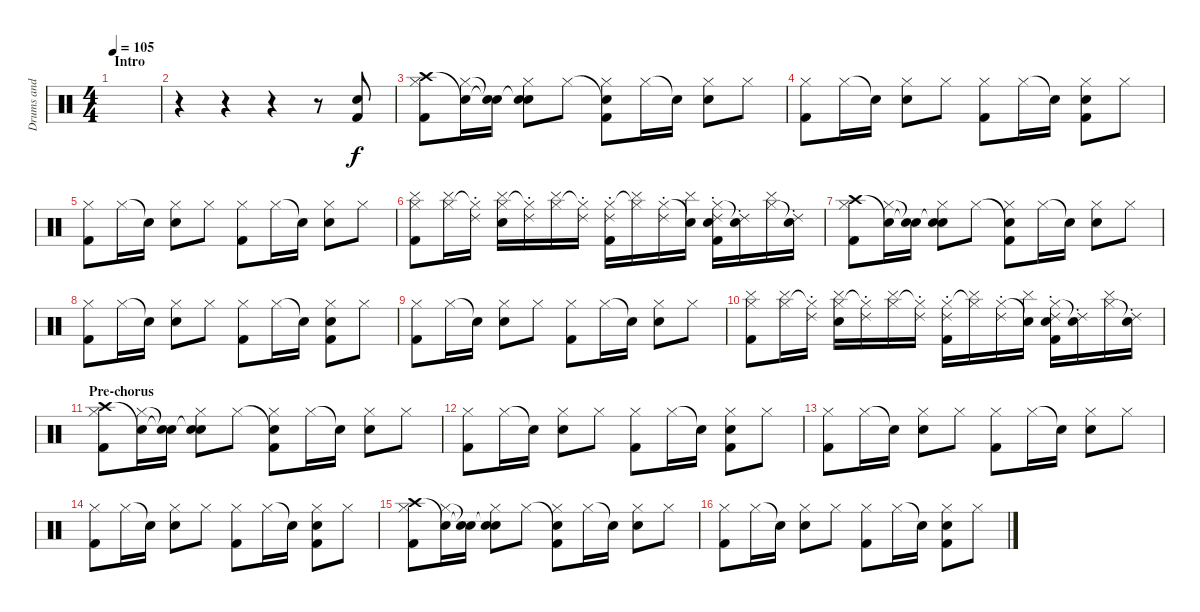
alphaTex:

\track ("Drums and scratch" "Drums and ") {instrument percussion}
\staff {score}
\articulation defaults
\ts (4 4)
\section ("" "Intro")
\tempo 105
\clef neutral
\ks c
|
r.4 r.4 r.4 r.8 ("Electric Snare (hit)" "Kick (hit) 2").8 |
("Crash high (hit)" "Hi-Hat (closed)" "Kick (hit) 2").8 ("Snare (hit)"{t} "Hi-Hat (closed)").16 ("Snare (hit)"{t} "Snare (hit)"{t}).16 ("Snare (hit)"{t} "Hi-Hat (closed)" "Electric Snare (hit)").8 "Hi-Hat (closed)".8 ("Snare (hit)"{t} "Hi-Hat (closed)" "Kick (hit) 2").8 "Hi-Hat (closed)".16 "Snare (hit)"{t}.16 ("Hi-Hat (closed)" "Electric Snare (hit)").8 "Hi-Hat (closed)".8 |
("Hi-Hat (closed)" "Kick (hit) 2").8 "Hi-Hat (closed)".16 "Snare (hit)"{t}.16 ("Hi-Hat (closed)" "Electric Snare (hit)").8 "Hi-Hat (closed)".8 ("Hi-Hat (closed)" "Kick (hit) 2").8 "Hi-Hat (closed)".16 "Snare (hit)"{t}.16 ("Hi-Hat (closed)" "Electric Snare (hit)" "Kick (hit) 2").8 "Hi-Hat (closed)".8 |
("Hi-Hat (closed)" "Kick (hit) 2").8 "Hi-Hat (closed)".16 "Snare (hit)"{t}.16 ("Hi-Hat (closed)" "Electric Snare (hit)").8 "Hi-Hat (closed)".8 ("Hi-Hat (closed)" "Kick (hit) 2").8 "Hi-Hat (closed)".16 "Snare (hit)"{t}.16 ("Hi-Hat (closed)" "Electric Snare (hit)").8 "Hi-Hat (closed)".8 |
("Cymbal (hit)" "Hi-Hat (closed)" "Kick (hit) 2").8 ("Cymbal (hit)" "Hi-Hat (closed)").16 ("Ride (choke) 2" "Hi-Hat (closed)"{t}).16 ("Cymbal (hit)" "Hi-Hat (closed)" "Electric Snare (hit)").16 ("Ride (choke) 2" "Hi-Hat (closed)"{t}).16 ("Cymbal (hit)" "Hi-Hat (closed)").16 ("Ride (choke) 2" "Hi-Hat (closed)"{t}).16 ("Ride (choke) 2" "Hi-Hat (closed)" "Kick (hit) 2").16 ("Cymbal (hit)" "Hi-Hat (closed)"{t}).16 ("Ride (choke) 2" "Hi-Hat (closed)").16 ("Cymbal (hit)" "Snare (hit)"{t}).16 ("Ride (choke) 2" "Hi-Hat (closed)" "Electric Snare (hit)" "Kick (hit) 2").16 ("Ride (choke) 2" "Snare (hit)"{t}).16 ("Cymbal (hit)" "Hi-Hat (closed)").16 ("Ride (choke) 2" "Snare (hit)"{t}).16 |
("Crash high (hit)" "Hi-Hat (closed)" "Kick (hit) 2").8 ("Snare (hit)"{t} "Hi-Hat (closed)").16 ("Snare (hit)"{t} "Snare (hit)"{t}).16 ("Snare (hit)"{t} "Hi-Hat (closed)" "Electric Snare (hit)").8 "Hi-Hat (closed)".8 ("Snare (hit)"{t} "Hi-Hat (closed)" "Kick (hit) 2").8 "Hi-Hat (closed)".16 "Snare (hit)"{t}.16 ("Hi-Hat (closed)" "Electric Snare (hit)").8 "Hi-Hat (closed)".8 |
("Hi-Hat (closed)" "Kick (hit) 2").8 "Hi-Hat (closed)".16 "Snare (hit)"{t}.16 ("Hi-Hat (closed)" "Electric Snare (hit)").8 "Hi-Hat (closed)".8 ("Hi-Hat (closed)" "Kick (hit) 2").8 "Hi-Hat (closed)".16 "Snare (hit)"{t}.16 ("Hi-Hat (closed)" "Electric Snare (hit)" "Kick (hit) 2").8 "Hi-Hat (closed)".8 |
("Hi-Hat (closed)" "Kick (hit) 2").8 "Hi-Hat (closed)".16 "Snare (hit)"{t}.16 ("Hi-Hat (closed)" "Electric Snare (hit)").8 "Hi-Hat (closed)".8 ("Hi-Hat (closed)" "Kick (hit) 2").8 "Hi-Hat (closed)".16 "Snare (hit)"{t}.16 ("Hi-Hat (closed)" "Electric Snare (hit)").8 "Hi-Hat (closed)".8 |
("Cymbal (hit)" "Hi-Hat (closed)" "Kick (hit) 2").8 ("Cymbal (hit)" "Hi-Hat (closed)").16 ("Ride (choke) 2" "Hi-Hat (closed)"{t}).16 ("Cymbal (hit)" "Hi-Hat (closed)" "Electric Snare (hit)").16 ("Ride (choke) 2" "Hi-Hat (closed)"{t}).16 ("Cymbal (hit)" "Hi-Hat (closed)").16 ("Ride (choke) 2" "Hi-Hat (closed)"{t}).16 ("Ride (choke) 2" "Hi-Hat (closed)" "Kick (hit) 2").16 ("Cymbal (hit)" "Hi-Hat (closed)"{t}).16 ("Ride (choke) 2" "Hi-Hat (closed)").16 ("Cymbal (hit)" "Snare (hit)"{t}).16 ("Ride (choke) 2" "Hi-Hat (closed)" "Electric Snare (hit)" "Kick (hit) 2").16 ("Ride (choke) 2" "Snare (hit)"{t}).16 ("Cymbal (hit)" "Hi-Hat (closed)").16 ("Ride (choke) 2" "Snare (hit)"{t}).16 |
\section ("" "Pre-chorus")
("Crash high (hit)" "Hi-Hat (closed)" "Kick (hit) 2").8 ("Snare (hit)"{t} "Hi-Hat (closed)").16 ("Snare (hit)"{t} "Snare (hit)"{t}).16 ("Snare (hit)"{t} "Hi-Hat (closed)" "Electric Snare (hit)").8 "Hi-Hat (closed)".8 ("Snare (hit)"{t} "Hi-Hat (closed)" "Kick (hit) 2").8 "Hi-Hat (closed)".16 "Snare (hit)"{t}.16 ("Hi-Hat (closed)" "Electric Snare (hit)").8 "Hi-Hat (closed)".8 |
("Hi-Hat (closed)" "Kick (hit) 2").8 "Hi-Hat (closed)".16 "Snare (hit)"{t}.16 ("Hi-Hat (closed)" "Electric Snare (hit)").8 "Hi-Hat (closed)".8 ("Hi-Hat (closed)" "Kick (hit) 2").8 "Hi-Hat (closed)".16 "Snare (hit)"{t}.16 ("Hi-Hat (closed)" "Electric Snare (hit)" "Kick (hit) 2").8 "Hi-Hat (closed)".8 |
("Hi-Hat (closed)" "Kick (hit) 2").8 "Hi-Hat (closed)".16 "Snare (hit)"{t}.16 ("Hi-Hat (closed)" "Electric Snare (hit)").8 "Hi-Hat (closed)".8 ("Hi-Hat (closed)" "Kick (hit) 2").8 "Hi-Hat (closed)".16 "Snare (hit)"{t}.16 ("Hi-Hat (closed)" "Electric Snare (hit)").8 "Hi-Hat (closed)".8 |
("Hi-Hat (closed)" "Kick (hit) 2").8 "Hi-Hat (closed)".16 "Snare (hit)"{t}.16 ("Hi-Hat (closed)" "Electric Snare (hit)").8 "Hi-Hat (closed)".8 ("Hi-Hat (closed)" "Kick (hit) 2").8 "Hi-Hat (closed)".16 "Snare (hit)"{t}.16 ("Hi-Hat (closed)" "Electric Snare (hit)" "Kick (hit) 2").8 "Hi-Hat (closed)".8 |
("Crash high (hit)" "Hi-Hat (closed)" "Kick (hit) 2").8 ("Snare (hit)"{t} "Hi-Hat (closed)").16 ("Snare (hit)"{t} "Snare (hit)"{t}).16 ("Snare (hit)"{t} "Hi-Hat (closed)" "Electric Snare (hit)").8 "Hi-Hat (closed)".8 ("Snare (hit)"{t} "Hi-Hat (closed)" "Kick (hit) 2").8 "Hi-Hat (closed)".16 "Snare (hit)"{t}.16 ("Hi-Hat (closed)" "Electric Snare (hit)").8 "Hi-Hat (closed)".8 |
("Hi-Hat (closed)" "Kick (hit) 2").8 "Hi-Hat (closed)".16 "Snare (hit)"{t}.16 ("Hi-Hat (closed)" "Electric Snare (hit)").8 "Hi-Hat (closed)".8 ("Hi-Hat (closed)" "Kick (hit) 2").8 "Hi-Hat (closed)".16 "Snare (hit)"{t}.16 ("Hi-Hat (closed)" "Electric Snare (hit)" "Kick (hit) 2").8 "Hi-Hat (closed)".8
